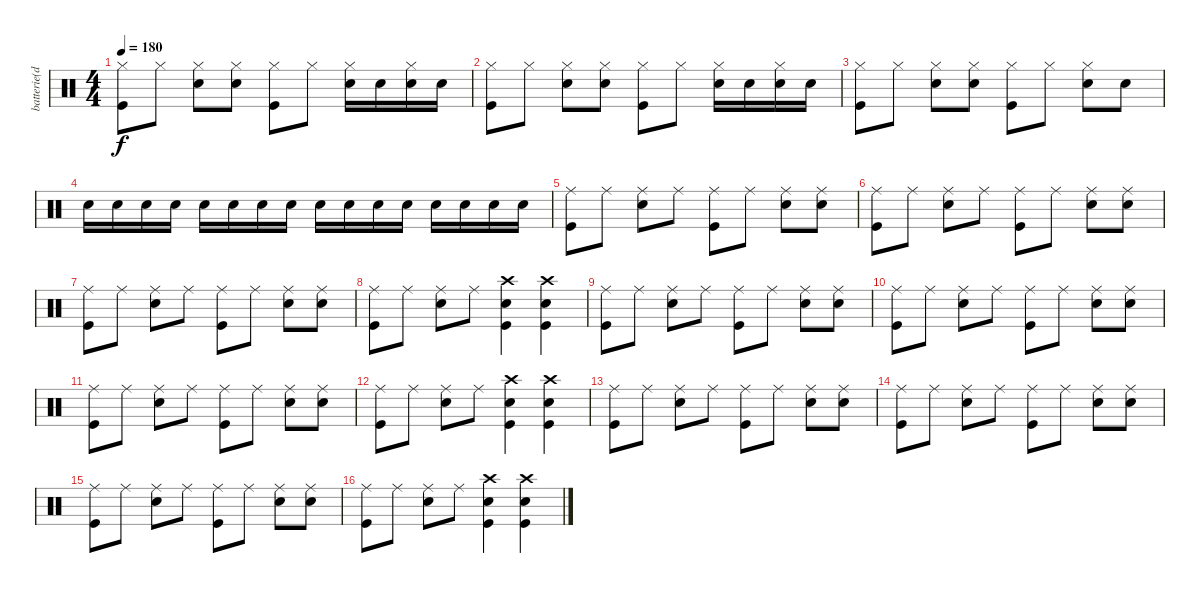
\track ("batterie(dave)" "batterie(d") {instrument percussion}
\staff {score}
\articulation defaults
\ts (4 4)
\tempo 180
\clef neutral
\ks c
("Hi-Hat (closed)" "Kick (hit)").8{dy f} "Hi-Hat (closed)".8 ("Hi-Hat (closed)" "Snare (hit) 2").8 ("Hi-Hat (closed)" "Snare (hit) 2").8 ("Hi-Hat (closed)" "Kick (hit)").8 "Hi-Hat (closed)".8 ("Hi-Hat (closed)" "Snare (hit) 2").16 "Snare (hit) 2".16 ("Hi-Hat (closed)" "Snare (hit) 2").16 "Snare (hit) 2".16 |
("Hi-Hat (closed)" "Kick (hit)").8 "Hi-Hat (closed)".8 ("Hi-Hat (closed)" "Snare (hit) 2").8 ("Hi-Hat (closed)" "Snare (hit) 2").8 ("Hi-Hat (closed)" "Kick (hit)").8 "Hi-Hat (closed)".8 ("Hi-Hat (closed)" "Snare (hit) 2").16 "Snare (hit) 2".16 ("Hi-Hat (closed)" "Snare (hit) 2").16 "Snare (hit) 2".16 |
("Hi-Hat (closed)" "Kick (hit)").8 "Hi-Hat (closed)".8 ("Hi-Hat (closed)" "Snare (hit) 2").8 ("Hi-Hat (closed)" "Snare (hit) 2").8 ("Hi-Hat (closed)" "Kick (hit)").8 "Hi-Hat (closed)".8 ("Hi-Hat (closed)" "Snare (hit) 2").8 "Snare (hit) 2".8 |
"Snare (hit) 2".16 "Snare (hit) 2".16 "Snare (hit) 2".16 "Snare (hit) 2".16 "Snare (hit) 2".16 "Snare (hit) 2".16 "Snare (hit) 2".16 "Snare (hit) 2".16 "Snare (hit) 2".16 "Snare (hit) 2".16 "Snare (hit) 2".16 "Snare (hit) 2".16 "Snare (hit) 2".16 "Snare (hit) 2".16 "Snare (hit) 2".16 "Snare (hit) 2".16 |
("Ride (middle)" "Kick (hit)").8 "Ride (middle)".8 ("Ride (middle)" "Snare (hit) 2").8 "Ride (middle)".8 ("Ride (middle)" "Kick (hit)").8 "Ride (middle)".8 ("Ride (middle)" "Snare (hit) 2").8 ("Ride (middle)" "Snare (hit) 2").8 |
("Ride (middle)" "Kick (hit)").8 "Ride (middle)".8 ("Ride (middle)" "Snare (hit) 2").8 "Ride (middle)".8 ("Ride (middle)" "Kick (hit)").8 "Ride (middle)".8 ("Ride (middle)" "Snare (hit) 2").8 ("Ride (middle)" "Snare (hit) 2").8 |
("Ride (middle)" "Kick (hit)").8 "Ride (middle)".8 ("Ride (middle)" "Snare (hit) 2").8 "Ride (middle)".8 ("Ride (middle)" "Kick (hit)").8 "Ride (middle)".8 ("Ride (middle)" "Snare (hit) 2").8 ("Ride (middle)" "Snare (hit) 2").8 |
("Ride (middle)" "Kick (hit)").8 "Ride (middle)".8 ("Ride (middle)" "Snare (hit) 2").8 "Ride (middle)".8 ("Crash high (hit)" "Snare (hit) 2" "Kick (hit)").4 ("Crash high (hit)" "Snare (hit) 2" "Kick (hit)").4 |
("Ride (middle)" "Kick (hit)").8 "Ride (middle)".8 ("Ride (middle)" "Snare (hit) 2").8 "Ride (middle)".8 ("Ride (middle)" "Kick (hit)").8 "Ride (middle)".8 ("Ride (middle)" "Snare (hit) 2").8 ("Ride (middle)" "Snare (hit) 2").8 |
("Ride (middle)" "Kick (hit)").8 "Ride (middle)".8 ("Ride (middle)" "Snare (hit) 2").8 "Ride (middle)".8 ("Ride (middle)" "Kick (hit)").8 "Ride (middle)".8 ("Ride (middle)" "Snare (hit) 2").8 ("Ride (middle)" "Snare (hit) 2").8 |
("Ride (middle)" "Kick (hit)").8 "Ride (middle)".8 ("Ride (middle)" "Snare (hit) 2").8 "Ride (middle)".8 ("Ride (middle)" "Kick (hit)").8 "Ride (middle)".8 ("Ride (middle)" "Snare (hit) 2").8 ("Ride (middle)" "Snare (hit) 2").8 |
("Ride (middle)" "Kick (hit)").8 "Ride (middle)".8 ("Ride (middle)" "Snare (hit) 2").8 "Ride (middle)".8 ("Crash high (hit)" "Snare (hit) 2" "Kick (hit)").4 ("Crash high (hit)" "Snare (hit) 2" "Kick (hit)").4 |
("Ride (middle)" "Kick (hit)").8 "Ride (middle)".8 ("Ride (middle)" "Snare (hit) 2").8 "Ride (middle)".8 ("Ride (middle)" "Kick (hit)").8 "Ride (middle)".8 ("Ride (middle)" "Snare (hit) 2").8 ("Ride (middle)" "Snare (hit) 2").8 |
("Ride (middle)" "Kick (hit)").8 "Ride (middle)".8 ("Ride (middle)" "Snare (hit) 2").8 "Ride (middle)".8 ("Ride (middle)" "Kick (hit)").8 "Ride (middle)".8 ("Ride (middle)" "Snare (hit) 2").8 ("Ride (middle)" "Snare (hit) 2").8 |
("Ride (middle)" "Kick (hit)").8 "Ride (middle)".8 ("Ride (middle)" "Snare (hit) 2").8 "Ride (middle)".8 ("Ride (middle)" "Kick (hit)").8 "Ride (middle)".8 ("Ride (middle)" "Snare (hit) 2").8 ("Ride (middle)" "Snare (hit) 2").8 |
("Ride (middle)" "Kick (hit)").8 "Ride (middle)".8 ("Ride (middle)" "Snare (hit) 2").8 "Ride (middle)".8 ("Crash high (hit)" "Snare (hit) 2" "Kick (hit)").4 ("Crash high (hit)" "Snare (hit) 2" "Kick (hit)").4
